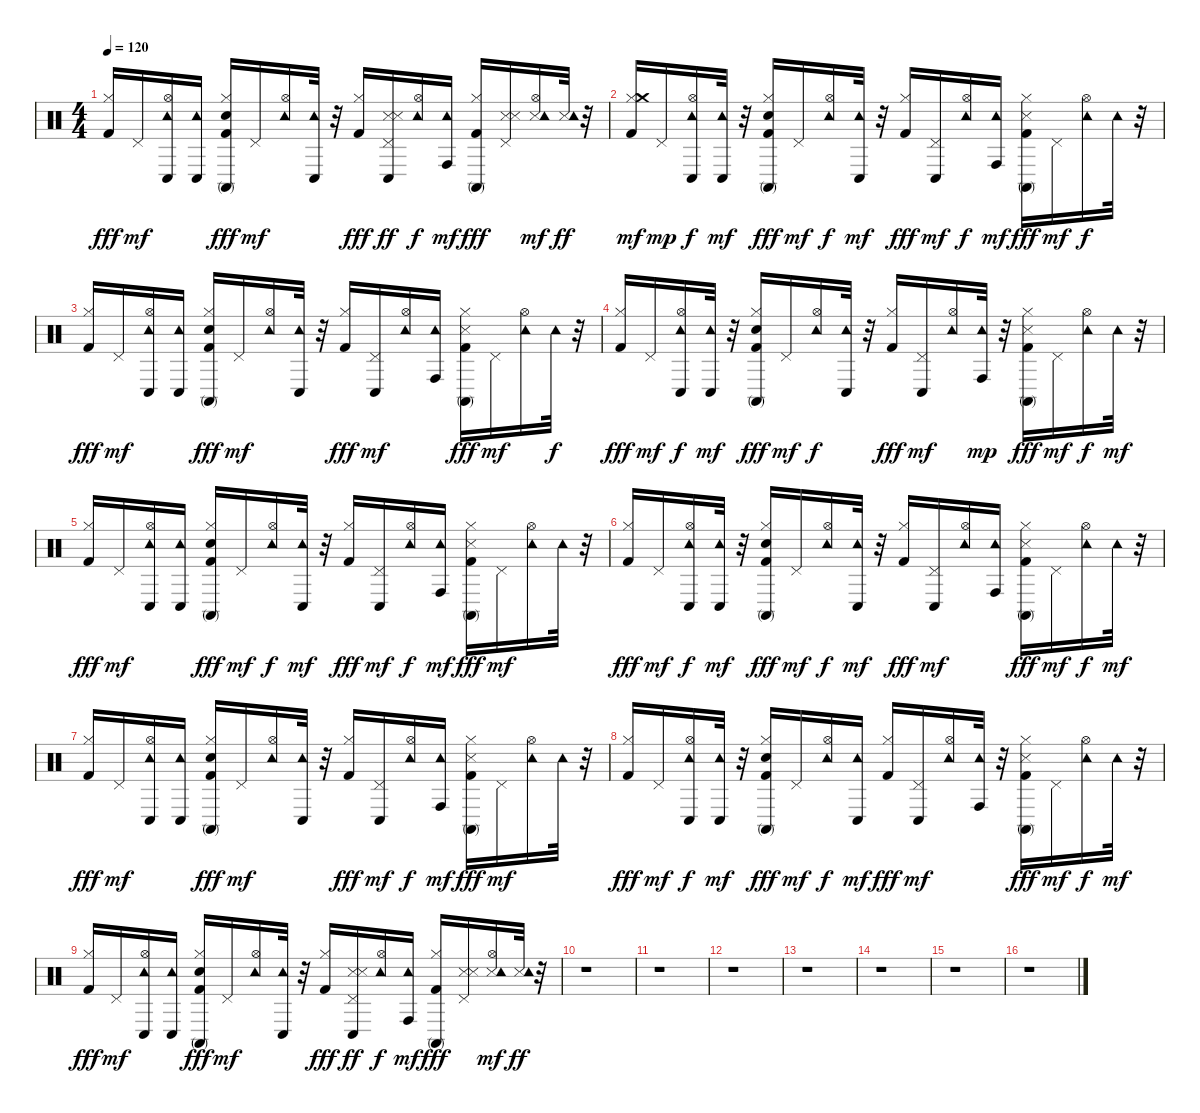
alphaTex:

\track "" {instrument percussion}
\staff {score}
\articulation defaults
\ts (4 4)
\tempo 120
\clef neutral
\ks c
("Kick (hit) 2" "Hi-Hat (closed)").16{dy fff} "Pedal Hi-Hat (hit)".16{dy mf} ("Conga low (hit)" "Hi-Hat (open)" "Tambourine (hit)").16 ("Conga low (hit)" "Tambourine (hit)").16 ("Conga high (mute)" "Kick (hit) 2" "Hi-Hat (closed)" "Snare (hit) 2").16{dy fff} "Pedal Hi-Hat (hit)".16{dy mf} ("Hi-Hat (open)" "Tambourine (hit)").16 ("Conga low (hit)" "Tambourine (hit)").32 r.32 ("Kick (hit) 2" "Hi-Hat (closed)").16{dy fff} ("Conga low (hit)" "Pedal Hi-Hat (hit)" "Snare (side stick) 3" "Snare (side stick) 3").16{dy ff} ("Hi-Hat (open)" "Tambourine (hit)").16{dy f} ("Conga high (hit)" "Tambourine (hit)").16{dy mf} ("Hi-Hat (closed)" "Kick (hit) 2" "Conga high (mute)").16{dy fff} ("Pedal Hi-Hat (hit)" "Snare (side stick) 3" "Snare (side stick) 3").16 ("Hi-Hat (open)" "Snare (side stick) 3" "Tambourine (hit)").16{dy mf} ("Snare (side stick) 3" "Tambourine (hit)").32{dy ff} r.32 |
("Hi-Hat (closed)" "Kick (hit) 2" "Crash medium (hit)").16{dy mf} "Pedal Hi-Hat (hit)".16{dy mp} ("Hi-Hat (open)" "Conga low (hit)" "Tambourine (hit)").16{dy f} ("Conga low (hit)" "Tambourine (hit)").32{dy mf} r.32 ("Conga high (mute)" "Kick (hit) 2" "Hi-Hat (closed)" "Snare (hit) 2").16{dy fff} "Pedal Hi-Hat (hit)".16{dy mf} ("Hi-Hat (open)" "Tambourine (hit)").16{dy f} ("Conga low (hit)" "Tambourine (hit)").32{dy mf} r.32 ("Kick (hit) 2" "Hi-Hat (closed)").16{dy fff} ("Conga low (hit)" "Pedal Hi-Hat (hit)").16{dy mf} ("Hi-Hat (open)" "Tambourine (hit)").16{dy f} ("Conga high (hit)" "Tambourine (hit)").16{dy mf} ("Conga high (mute)" "Kick (hit) 2" "Hi-Hat (closed)" "Snare (side stick) 3").16{dy fff} "Pedal Hi-Hat (hit)".16{dy mf} ("Hi-Hat (open)" "Tambourine (hit)").16{dy f} "Tambourine (hit)".32 r.32 |
("Hi-Hat (closed)" "Kick (hit) 2").16{dy fff} "Pedal Hi-Hat (hit)".16{dy mf} ("Hi-Hat (open)" "Conga low (hit)" "Tambourine (hit)").16 ("Conga low (hit)" "Tambourine (hit)").16 ("Hi-Hat (closed)" "Conga high (mute)" "Kick (hit) 2" "Snare (hit) 2").16{dy fff} "Pedal Hi-Hat (hit)".16{dy mf} ("Hi-Hat (open)" "Tambourine (hit)").16 ("Conga low (hit)" "Tambourine (hit)").32 r.32 ("Hi-Hat (closed)" "Kick (hit) 2").16{dy fff} ("Conga low (hit)" "Pedal Hi-Hat (hit)").16{dy mf} ("Hi-Hat (open)" "Tambourine (hit)").16 ("Conga high (hit)" "Tambourine (hit)").16 ("Hi-Hat (closed)" "Conga high (mute)" "Kick (hit) 2" "Snare (side stick) 3").16{dy fff} "Pedal Hi-Hat (hit)".16{dy mf} ("Hi-Hat (open)" "Tambourine (hit)").16 "Tambourine (hit)".32{dy f} r.32 |
("Hi-Hat (closed)" "Kick (hit) 2").16{dy fff} "Pedal Hi-Hat (hit)".16{dy mf} ("Conga low (hit)" "Hi-Hat (open)" "Tambourine (hit)").16{dy f} ("Conga low (hit)" "Tambourine (hit)").32{dy mf} r.32 ("Conga high (mute)" "Kick (hit) 2" "Hi-Hat (closed)" "Snare (hit) 2").16{dy fff} "Pedal Hi-Hat (hit)".16{dy mf} ("Hi-Hat (open)" "Tambourine (hit)").16{dy f} ("Conga low (hit)" "Tambourine (hit)").32 r.32 ("Hi-Hat (closed)" "Kick (hit) 2").16{dy fff} ("Conga low (hit)" "Pedal Hi-Hat (hit)").16{dy mf} ("Hi-Hat (open)" "Tambourine (hit)").16 ("Conga high (hit)" "Tambourine (hit)").32{dy mp} r.32 ("Hi-Hat (closed)" "Conga high (mute)" "Kick (hit) 2" "Snare (side stick) 3").16{dy fff} "Pedal Hi-Hat (hit)".16{dy mf} ("Hi-Hat (open)" "Tambourine (hit)").16{dy f} "Tambourine (hit)".32{dy mf} r.32 |
("Kick (hit) 2" "Hi-Hat (closed)").16{dy fff} "Pedal Hi-Hat (hit)".16{dy mf} ("Conga low (hit)" "Hi-Hat (open)" "Tambourine (hit)").16 ("Conga low (hit)" "Tambourine (hit)").16 ("Conga high (mute)" "Kick (hit) 2" "Hi-Hat (closed)" "Snare (hit) 2").16{dy fff} "Pedal Hi-Hat (hit)".16{dy mf} ("Hi-Hat (open)" "Tambourine (hit)").16{dy f} ("Conga low (hit)" "Tambourine (hit)").32{dy mf} r.32 ("Hi-Hat (closed)" "Kick (hit) 2").16{dy fff} ("Conga low (hit)" "Pedal Hi-Hat (hit)").16{dy mf} ("Hi-Hat (open)" "Tambourine (hit)").16{dy f} ("Conga high (hit)" "Tambourine (hit)").16{dy mf} ("Conga high (mute)" "Kick (hit) 2" "Hi-Hat (closed)" "Snare (side stick) 3").16{dy fff} "Pedal Hi-Hat (hit)".16{dy mf} ("Hi-Hat (open)" "Tambourine (hit)").16 "Tambourine (hit)".32 r.32 |
("Kick (hit) 2" "Hi-Hat (closed)").16{dy fff} "Pedal Hi-Hat (hit)".16{dy mf} ("Conga low (hit)" "Hi-Hat (open)" "Tambourine (hit)").16{dy f} ("Conga low (hit)" "Tambourine (hit)").32{dy mf} r.32 ("Conga high (mute)" "Kick (hit) 2" "Hi-Hat (closed)" "Snare (hit) 2").16{dy fff} "Pedal Hi-Hat (hit)".16{dy mf} ("Hi-Hat (open)" "Tambourine (hit)").16{dy f} ("Conga low (hit)" "Tambourine (hit)").32{dy mf} r.32 ("Kick (hit) 2" "Hi-Hat (closed)").16{dy fff} ("Conga low (hit)" "Pedal Hi-Hat (hit)").16{dy mf} ("Hi-Hat (open)" "Tambourine (hit)").16 ("Conga high (hit)" "Tambourine (hit)").16 ("Conga high (mute)" "Kick (hit) 2" "Hi-Hat (closed)" "Snare (side stick) 3").16{dy fff} "Pedal Hi-Hat (hit)".16{dy mf} ("Hi-Hat (open)" "Tambourine (hit)").16{dy f} "Tambourine (hit)".32{dy mf} r.32 |
("Kick (hit) 2" "Hi-Hat (closed)").16{dy fff} "Pedal Hi-Hat (hit)".16{dy mf} ("Conga low (hit)" "Hi-Hat (open)" "Tambourine (hit)").16 ("Conga low (hit)" "Tambourine (hit)").16 ("Conga high (mute)" "Kick (hit) 2" "Hi-Hat (closed)" "Snare (hit) 2").16{dy fff} "Pedal Hi-Hat (hit)".16{dy mf} ("Hi-Hat (open)" "Tambourine (hit)").16 ("Conga low (hit)" "Tambourine (hit)").32 r.32 ("Kick (hit) 2" "Hi-Hat (closed)").16{dy fff} ("Conga low (hit)" "Pedal Hi-Hat (hit)").16{dy mf} ("Hi-Hat (open)" "Tambourine (hit)").16{dy f} ("Conga high (hit)" "Tambourine (hit)").16{dy mf} ("Hi-Hat (closed)" "Kick (hit) 2" "Conga high (mute)" "Snare (side stick) 3").16{dy fff} "Pedal Hi-Hat (hit)".16{dy mf} ("Hi-Hat (open)" "Tambourine (hit)").16 "Tambourine (hit)".32 r.32 |
("Hi-Hat (closed)" "Kick (hit) 2").16{dy fff} "Pedal Hi-Hat (hit)".16{dy mf} ("Conga low (hit)" "Hi-Hat (open)" "Tambourine (hit)").16{dy f} ("Conga low (hit)" "Tambourine (hit)").32{dy mf} r.32 ("Conga high (mute)" "Kick (hit) 2" "Hi-Hat (closed)" "Snare (hit) 2").16{dy fff} "Pedal Hi-Hat (hit)".16{dy mf} ("Hi-Hat (open)" "Tambourine (hit)").16{dy f} ("Conga low (hit)" "Tambourine (hit)").16{dy mf} ("Kick (hit) 2" "Hi-Hat (closed)").16{dy fff} ("Conga low (hit)" "Pedal Hi-Hat (hit)").16{dy mf} ("Hi-Hat (open)" "Tambourine (hit)").16 ("Conga high (hit)" "Tambourine (hit)").32 r.32 ("Hi-Hat (closed)" "Conga high (mute)" "Kick (hit) 2" "Snare (side stick) 3").16{dy fff} "Pedal Hi-Hat (hit)".16{dy mf} ("Hi-Hat (open)" "Tambourine (hit)").16{dy f} "Tambourine (hit)".32{dy mf} r.32 |
("Kick (hit) 2" "Hi-Hat (closed)").16{dy fff} "Pedal Hi-Hat (hit)".16{dy mf} ("Conga low (hit)" "Hi-Hat (open)" "Tambourine (hit)").16 ("Conga low (hit)" "Tambourine (hit)").16 ("Conga high (mute)" "Kick (hit) 2" "Hi-Hat (closed)" "Snare (hit) 2").16{dy fff} "Pedal Hi-Hat (hit)".16{dy mf} ("Hi-Hat (open)" "Tambourine (hit)").16 ("Conga low (hit)" "Tambourine (hit)").32 r.32 ("Kick (hit) 2" "Hi-Hat (closed)").16{dy fff} ("Conga low (hit)" "Pedal Hi-Hat (hit)" "Snare (side stick) 3" "Snare (side stick) 3").16{dy ff} ("Hi-Hat (open)" "Tambourine (hit)").16{dy f} ("Conga high (hit)" "Tambourine (hit)").16{dy mf} ("Hi-Hat (closed)" "Kick (hit) 2" "Conga high (mute)").16{dy fff} ("Pedal Hi-Hat (hit)" "Snare (side stick) 3" "Snare (side stick) 3").16 ("Hi-Hat (open)" "Snare (side stick) 3" "Tambourine (hit)").16{dy mf} ("Snare (side stick) 3" "Tambourine (hit)").32{dy ff} r.32 |
r.1 |
r.1 |
r.1 |
r.1 |
r.1 |
r.1 |
r.1
